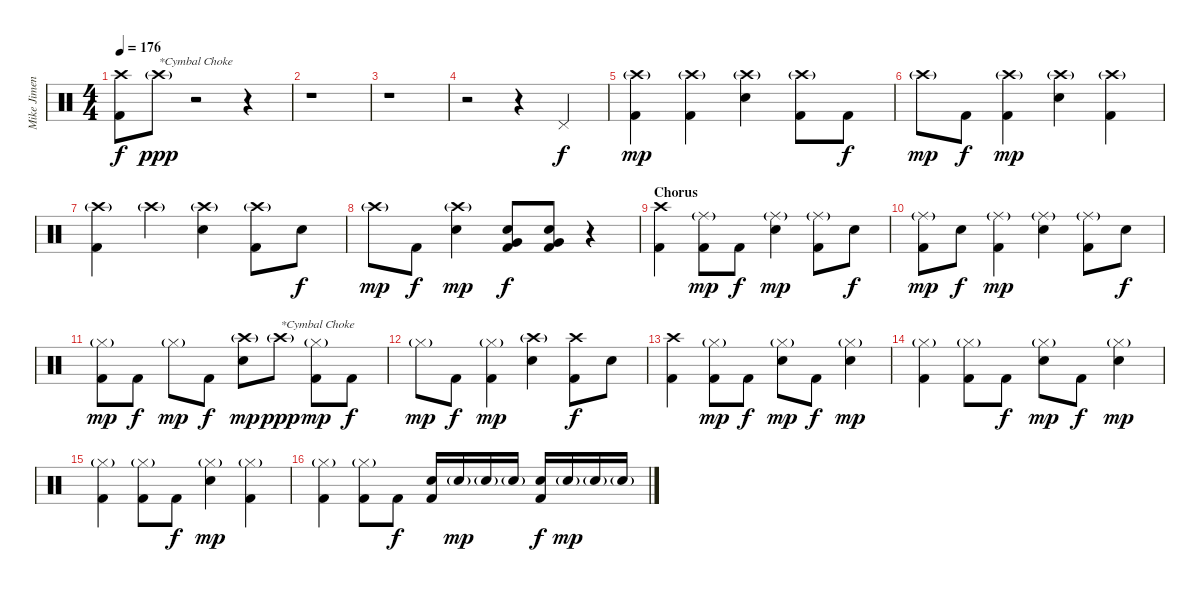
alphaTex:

\track ("Mike Jimenez" "Mike Jimen") {instrument percussion}
\staff {score}
\articulation defaults
\ts (4 4)
\tempo 176
\clef neutral
\ks c
("Crash high (hit)" "Kick (hit) 2").8{dy f} "Crash high (hit)"{g}.8{txt "*Cymbal Choke" dy ppp} r.2 r.4 |
r.1 |
r.1 |
r.2 r.4 "Pedal Hi-Hat (hit)".4{dy f} |
("Crash high (hit)"{g} "Kick (hit) 2").4{dy mp} ("Crash high (hit)"{g} "Kick (hit) 2").4 ("Crash high (hit)"{g} "Electric Snare (hit)").4 ("Crash high (hit)"{g} "Kick (hit) 2").8 "Kick (hit) 2".8{dy f} |
"Crash high (hit)"{g}.8{dy mp} "Kick (hit) 2".8{dy f} ("Crash high (hit)"{g} "Kick (hit) 2").4{dy mp} ("Crash high (hit)"{g} "Electric Snare (hit)").4 ("Crash high (hit)"{g} "Kick (hit) 2").4 |
("Crash high (hit)"{g} "Kick (hit) 2").4 "Crash high (hit)"{g}.4 ("Crash high (hit)"{g} "Electric Snare (hit)").4 ("Crash high (hit)"{g} "Kick (hit) 2").8 "Electric Snare (hit)".8{dy f} |
"Crash high (hit)"{g}.8{dy mp} "Kick (hit) 2".8{dy f} ("Crash high (hit)"{g} "Electric Snare (hit)").4{dy mp} ("Electric Snare (hit)" "Very Low Tom (hit)" "Kick (hit) 2").8{dy f} ("Electric Snare (hit)" "Very Low Tom (hit)" "Kick (hit) 2").8 r.4 |
\section ("" "Chorus")
("Crash high (hit)" "Kick (hit) 2").4 ("Ride (middle)"{g} "Kick (hit) 2").8{dy mp} "Kick (hit) 2".8{dy f} ("Ride (middle)"{g} "Electric Snare (hit)").4{dy mp} ("Ride (middle)"{g} "Kick (hit) 2").8 "Electric Snare (hit)".8{dy f} |
("Ride (middle)"{g} "Kick (hit) 2").8{dy mp} "Electric Snare (hit)".8{dy f} ("Ride (middle)"{g} "Kick (hit) 2").4{dy mp} ("Ride (middle)"{g} "Electric Snare (hit)").4 ("Ride (middle)"{g} "Kick (hit) 2").8 "Electric Snare (hit)".8{dy f} |
("Hi-Hat (closed)"{g} "Kick (hit) 2").8{dy mp} "Kick (hit) 2".8{dy f} "Hi-Hat (closed)"{g}.8{dy mp} "Kick (hit) 2".8{dy f} ("Crash high (hit)"{g} "Electric Snare (hit)").8{dy mp} "Crash high (hit)"{g}.8{txt "*Cymbal Choke" dy ppp} ("Hi-Hat (closed)"{g} "Kick (hit) 2").8{dy mp} "Kick (hit) 2".8{dy f} |
"Hi-Hat (closed)"{g}.8{dy mp} "Kick (hit) 2".8{dy f} ("Hi-Hat (closed)"{g} "Kick (hit) 2").4{dy mp} ("Crash high (hit)"{g} "Electric Snare (hit)").4 ("Crash high (hit)" "Kick (hit) 2").8{dy f} "Electric Snare (hit)".8 |
("Crash high (hit)" "Kick (hit) 2").4 ("Hi-Hat (closed)"{g} "Kick (hit) 2").8{dy mp} "Kick (hit) 2".8{dy f} ("Hi-Hat (closed)"{g} "Electric Snare (hit)").8{dy mp} "Kick (hit) 2".8{dy f} ("Hi-Hat (closed)"{g} "Electric Snare (hit)").4{dy mp} |
("Hi-Hat (closed)"{g} "Kick (hit) 2").4 ("Hi-Hat (closed)"{g} "Kick (hit) 2").8 "Kick (hit) 2".8{dy f} ("Hi-Hat (closed)"{g} "Electric Snare (hit)").8{dy mp} "Kick (hit) 2".8{dy f} ("Hi-Hat (closed)"{g} "Electric Snare (hit)").4{dy mp} |
("Hi-Hat (closed)"{g} "Kick (hit) 2").4 ("Hi-Hat (closed)"{g} "Kick (hit) 2").8 "Kick (hit) 2".8{dy f} ("Hi-Hat (closed)"{g} "Electric Snare (hit)").4{dy mp} ("Hi-Hat (closed)"{g} "Kick (hit) 2").4 |
("Hi-Hat (closed)"{g} "Kick (hit) 2").4 ("Hi-Hat (closed)"{g} "Kick (hit) 2").8 "Kick (hit) 2".8{dy f} ("Electric Snare (hit)" "Kick (hit) 2").16 "Electric Snare (hit)"{g}.16{dy mp} "Electric Snare (hit)"{g}.16 "Electric Snare (hit)"{g}.16 ("Electric Snare (hit)" "Kick (hit) 2").16{dy f} "Electric Snare (hit)"{g}.16{dy mp} "Electric Snare (hit)"{g}.16 "Electric Snare (hit)"{g}.16
